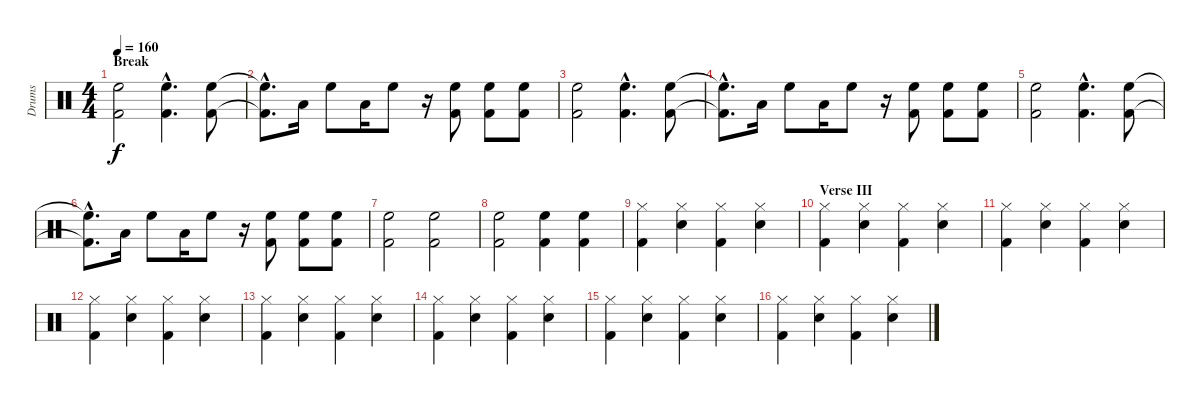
\track ("Drums" "Drums") {instrument percussion}
\staff {score}
\articulation defaults
\ts (4 4)
\section ("" "Break")
\tempo 160
\clef neutral
\ks c
("High Floor Tom (hit)" "Kick (hit) 2").2{dy f} ("High Floor Tom (hit)"{hac} "Kick (hit) 2"{hac}).4{d} ("High Floor Tom (hit)" "Kick (hit) 2").8 |
("High Floor Tom (hit)"{hac t} "Kick (hit) 2"{hac t}).8{d} "Low Floor Tom (hit)".16 "High Floor Tom (hit)".8 "Low Floor Tom (hit)".16 "High Floor Tom (hit)".8 r.16 ("High Floor Tom (hit)" "Kick (hit) 2").8 ("High Floor Tom (hit)" "Kick (hit) 2").8 ("High Floor Tom (hit)" "Kick (hit) 2").8 |
("High Floor Tom (hit)" "Kick (hit) 2").2 ("High Floor Tom (hit)"{hac} "Kick (hit) 2"{hac}).4{d} ("High Floor Tom (hit)" "Kick (hit) 2").8 |
("High Floor Tom (hit)"{hac t} "Kick (hit) 2"{hac t}).8{d} "Low Floor Tom (hit)".16 "High Floor Tom (hit)".8 "Low Floor Tom (hit)".16 "High Floor Tom (hit)".8 r.16 ("High Floor Tom (hit)" "Kick (hit) 2").8 ("High Floor Tom (hit)" "Kick (hit) 2").8 ("High Floor Tom (hit)" "Kick (hit) 2").8 |
("High Floor Tom (hit)" "Kick (hit) 2").2 ("High Floor Tom (hit)"{hac} "Kick (hit) 2"{hac}).4{d} ("High Floor Tom (hit)" "Kick (hit) 2").8 |
("High Floor Tom (hit)"{hac t} "Kick (hit) 2"{hac t}).8{d} "Low Floor Tom (hit)".16 "High Floor Tom (hit)".8 "Low Floor Tom (hit)".16 "High Floor Tom (hit)".8 r.16 ("High Floor Tom (hit)" "Kick (hit) 2").8 ("High Floor Tom (hit)" "Kick (hit) 2").8 ("High Floor Tom (hit)" "Kick (hit) 2").8 |
("High Floor Tom (hit)" "Kick (hit) 2").2 ("High Floor Tom (hit)" "Kick (hit) 2").2 |
("High Floor Tom (hit)" "Kick (hit) 2").2 ("High Floor Tom (hit)" "Kick (hit) 2").4 ("High Floor Tom (hit)" "Kick (hit) 2").4 |
\section ("" "")
("Hi-Hat (closed)" "Kick (hit) 2").4 ("Hi-Hat (closed)" "Snare (hit) 2").4 ("Hi-Hat (closed)" "Kick (hit) 2").4 ("Hi-Hat (closed)" "Snare (hit) 2").4 |
\section ("" "Verse III")
("Hi-Hat (closed)" "Kick (hit) 2").4 ("Hi-Hat (closed)" "Snare (hit) 2").4 ("Hi-Hat (closed)" "Kick (hit) 2").4 ("Hi-Hat (closed)" "Snare (hit) 2").4 |
("Hi-Hat (closed)" "Kick (hit) 2").4 ("Hi-Hat (closed)" "Snare (hit) 2").4 ("Hi-Hat (closed)" "Kick (hit) 2").4 ("Hi-Hat (closed)" "Snare (hit) 2").4 |
("Hi-Hat (closed)" "Kick (hit) 2").4 ("Hi-Hat (closed)" "Snare (hit) 2").4 ("Hi-Hat (closed)" "Kick (hit) 2").4 ("Hi-Hat (closed)" "Snare (hit) 2").4 |
("Hi-Hat (closed)" "Kick (hit) 2").4 ("Hi-Hat (closed)" "Snare (hit) 2").4 ("Hi-Hat (closed)" "Kick (hit) 2").4 ("Hi-Hat (closed)" "Snare (hit) 2").4 |
("Hi-Hat (closed)" "Kick (hit) 2").4 ("Hi-Hat (closed)" "Snare (hit) 2").4 ("Hi-Hat (closed)" "Kick (hit) 2").4 ("Hi-Hat (closed)" "Snare (hit) 2").4 |
("Hi-Hat (closed)" "Kick (hit) 2").4 ("Hi-Hat (closed)" "Snare (hit) 2").4 ("Hi-Hat (closed)" "Kick (hit) 2").4 ("Hi-Hat (closed)" "Snare (hit) 2").4 |
("Hi-Hat (closed)" "Kick (hit) 2").4 ("Hi-Hat (closed)" "Snare (hit) 2").4 ("Hi-Hat (closed)" "Kick (hit) 2").4 ("Hi-Hat (closed)" "Snare (hit) 2").4
